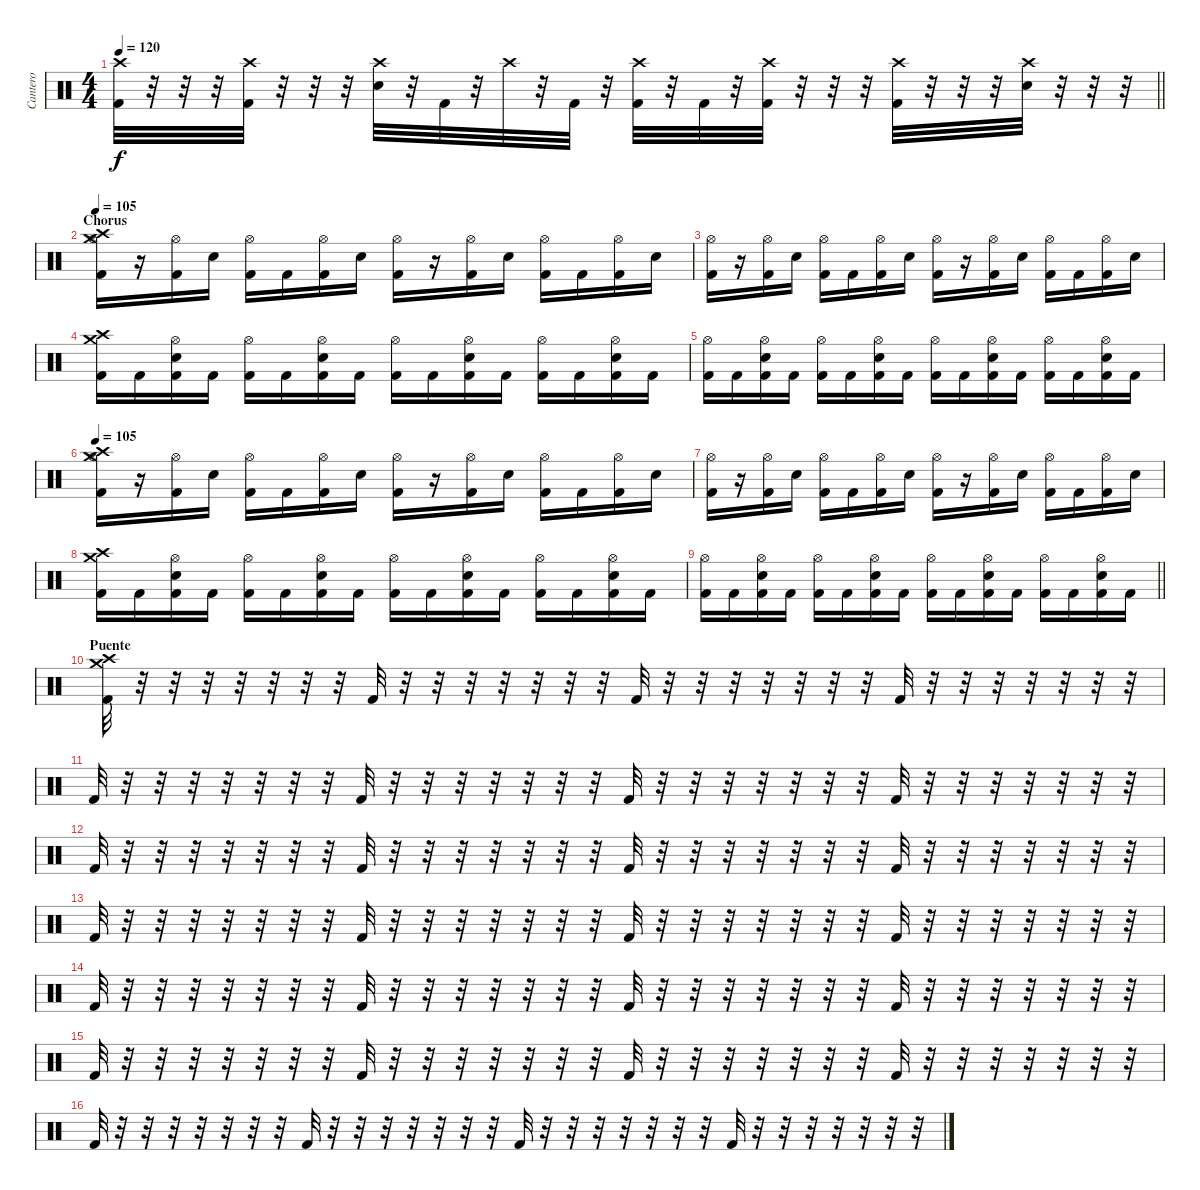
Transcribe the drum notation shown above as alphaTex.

\track ("Cantero" "Cantero") {instrument percussion}
\staff {score}
\articulation defaults
\ts (4 4)
\tempo 120
\clef neutral
\barLineRight lightlight
\ks c
("Crash high (hit)" "Kick (hit) 2").32{dy f} r.32 r.32 r.32 ("Crash high (hit)" "Kick (hit) 2").32 r.32 r.32 r.32 ("Crash high (hit)" "Electric Snare (hit)").32 r.32 "Kick (hit) 2".32 r.32 "Crash high (hit)".32 r.32 "Kick (hit) 2".32 r.32 ("Crash high (hit)" "Kick (hit) 2").32 r.32 "Kick (hit) 2".32 r.32 ("Crash high (hit)" "Kick (hit) 2").32 r.32 r.32 r.32 ("Crash high (hit)" "Kick (hit) 2").32 r.32 r.32 r.32 ("Crash high (hit)" "Electric Snare (hit)").32 r.32 r.32 r.32 |
\section ("" "Chorus")
\tempo 100
\tempo 105
("Hi-Hat (open)" "Kick (hit) 2" "Crash high (hit)" "Crash medium (hit)").16 r.16 ("Kick (hit) 2" "Hi-Hat (open)").16 "Electric Snare (hit)".16 ("Hi-Hat (open)" "Kick (hit) 2").16 "Kick (hit) 2".16 ("Hi-Hat (open)" "Kick (hit) 2").16 "Electric Snare (hit)".16 ("Hi-Hat (open)" "Kick (hit) 2").16 r.16 ("Kick (hit) 2" "Hi-Hat (open)").16 "Electric Snare (hit)".16 ("Hi-Hat (open)" "Kick (hit) 2").16 "Kick (hit) 2".16 ("Hi-Hat (open)" "Kick (hit) 2").16 "Electric Snare (hit)".16 |
("Hi-Hat (open)" "Kick (hit) 2").16 r.16 ("Kick (hit) 2" "Hi-Hat (open)").16 "Electric Snare (hit)".16 ("Hi-Hat (open)" "Kick (hit) 2").16 "Kick (hit) 2".16 ("Hi-Hat (open)" "Kick (hit) 2").16 "Electric Snare (hit)".16 ("Hi-Hat (open)" "Kick (hit) 2").16 r.16 ("Kick (hit) 2" "Hi-Hat (open)").16 "Electric Snare (hit)".16 ("Hi-Hat (open)" "Kick (hit) 2").16 "Kick (hit) 2".16 ("Hi-Hat (open)" "Kick (hit) 2").16 "Electric Snare (hit)".16 |
("Kick (hit) 2" "Crash medium (hit)" "Crash high (hit)").16 "Kick (hit) 2".16 ("Electric Snare (hit)" "Kick (hit) 2" "Hi-Hat (open)").16 "Kick (hit) 2".16 ("Kick (hit) 2" "Hi-Hat (open)").16 "Kick (hit) 2".16 ("Electric Snare (hit)" "Kick (hit) 2" "Hi-Hat (open)").16 "Kick (hit) 2".16 ("Kick (hit) 2" "Hi-Hat (open)").16 "Kick (hit) 2".16 ("Electric Snare (hit)" "Kick (hit) 2" "Hi-Hat (open)").16 "Kick (hit) 2".16 ("Kick (hit) 2" "Hi-Hat (open)").16 "Kick (hit) 2".16 ("Electric Snare (hit)" "Kick (hit) 2" "Hi-Hat (open)").16 "Kick (hit) 2".16 |
("Kick (hit) 2" "Hi-Hat (open)").16 "Kick (hit) 2".16 ("Electric Snare (hit)" "Kick (hit) 2" "Hi-Hat (open)").16 "Kick (hit) 2".16 ("Kick (hit) 2" "Hi-Hat (open)").16 "Kick (hit) 2".16 ("Electric Snare (hit)" "Kick (hit) 2" "Hi-Hat (open)").16 "Kick (hit) 2".16 ("Kick (hit) 2" "Hi-Hat (open)").16 "Kick (hit) 2".16 ("Electric Snare (hit)" "Kick (hit) 2" "Hi-Hat (open)").16 "Kick (hit) 2".16 ("Kick (hit) 2" "Hi-Hat (open)").16 "Kick (hit) 2".16 ("Electric Snare (hit)" "Kick (hit) 2" "Hi-Hat (open)").16 "Kick (hit) 2".16 |
\tempo 105
("Hi-Hat (open)" "Kick (hit) 2" "Crash high (hit)" "Crash medium (hit)").16 r.16 ("Kick (hit) 2" "Hi-Hat (open)").16 "Electric Snare (hit)".16 ("Hi-Hat (open)" "Kick (hit) 2").16 "Kick (hit) 2".16 ("Hi-Hat (open)" "Kick (hit) 2").16 "Electric Snare (hit)".16 ("Hi-Hat (open)" "Kick (hit) 2").16 r.16 ("Kick (hit) 2" "Hi-Hat (open)").16 "Electric Snare (hit)".16 ("Hi-Hat (open)" "Kick (hit) 2").16 "Kick (hit) 2".16 ("Hi-Hat (open)" "Kick (hit) 2").16 "Electric Snare (hit)".16 |
("Hi-Hat (open)" "Kick (hit) 2").16 r.16 ("Kick (hit) 2" "Hi-Hat (open)").16 "Electric Snare (hit)".16 ("Hi-Hat (open)" "Kick (hit) 2").16 "Kick (hit) 2".16 ("Hi-Hat (open)" "Kick (hit) 2").16 "Electric Snare (hit)".16 ("Hi-Hat (open)" "Kick (hit) 2").16 r.16 ("Kick (hit) 2" "Hi-Hat (open)").16 "Electric Snare (hit)".16 ("Hi-Hat (open)" "Kick (hit) 2").16 "Kick (hit) 2".16 ("Hi-Hat (open)" "Kick (hit) 2").16 "Electric Snare (hit)".16 |
("Kick (hit) 2" "Crash medium (hit)" "Crash high (hit)").16 "Kick (hit) 2".16 ("Electric Snare (hit)" "Kick (hit) 2" "Hi-Hat (open)").16 "Kick (hit) 2".16 ("Kick (hit) 2" "Hi-Hat (open)").16 "Kick (hit) 2".16 ("Electric Snare (hit)" "Kick (hit) 2" "Hi-Hat (open)").16 "Kick (hit) 2".16 ("Kick (hit) 2" "Hi-Hat (open)").16 "Kick (hit) 2".16 ("Electric Snare (hit)" "Kick (hit) 2" "Hi-Hat (open)").16 "Kick (hit) 2".16 ("Kick (hit) 2" "Hi-Hat (open)").16 "Kick (hit) 2".16 ("Electric Snare (hit)" "Kick (hit) 2" "Hi-Hat (open)").16 "Kick (hit) 2".16 |
\barLineRight lightlight
("Kick (hit) 2" "Hi-Hat (open)").16 "Kick (hit) 2".16 ("Electric Snare (hit)" "Kick (hit) 2" "Hi-Hat (open)").16 "Kick (hit) 2".16 ("Kick (hit) 2" "Hi-Hat (open)").16 "Kick (hit) 2".16 ("Electric Snare (hit)" "Kick (hit) 2" "Hi-Hat (open)").16 "Kick (hit) 2".16 ("Kick (hit) 2" "Hi-Hat (open)").16 "Kick (hit) 2".16 ("Electric Snare (hit)" "Kick (hit) 2" "Hi-Hat (open)").16 "Kick (hit) 2".16 ("Kick (hit) 2" "Hi-Hat (open)").16 "Kick (hit) 2".16 ("Electric Snare (hit)" "Kick (hit) 2" "Hi-Hat (open)").16 "Kick (hit) 2".16 |
\section ("" "Puente")
("Kick (hit) 2" "Crash high (hit)" "Crash medium (hit)").32 r.32 r.32 r.32 r.32 r.32 r.32 r.32 "Kick (hit) 2".32 r.32 r.32 r.32 r.32 r.32 r.32 r.32 "Kick (hit) 2".32 r.32 r.32 r.32 r.32 r.32 r.32 r.32 "Kick (hit) 2".32 r.32 r.32 r.32 r.32 r.32 r.32 r.32 |
"Kick (hit) 2".32 r.32 r.32 r.32 r.32 r.32 r.32 r.32 "Kick (hit) 2".32 r.32 r.32 r.32 r.32 r.32 r.32 r.32 "Kick (hit) 2".32 r.32 r.32 r.32 r.32 r.32 r.32 r.32 "Kick (hit) 2".32 r.32 r.32 r.32 r.32 r.32 r.32 r.32 |
"Kick (hit) 2".32 r.32 r.32 r.32 r.32 r.32 r.32 r.32 "Kick (hit) 2".32 r.32 r.32 r.32 r.32 r.32 r.32 r.32 "Kick (hit) 2".32 r.32 r.32 r.32 r.32 r.32 r.32 r.32 "Kick (hit) 2".32 r.32 r.32 r.32 r.32 r.32 r.32 r.32 |
"Kick (hit) 2".32 r.32 r.32 r.32 r.32 r.32 r.32 r.32 "Kick (hit) 2".32 r.32 r.32 r.32 r.32 r.32 r.32 r.32 "Kick (hit) 2".32 r.32 r.32 r.32 r.32 r.32 r.32 r.32 "Kick (hit) 2".32 r.32 r.32 r.32 r.32 r.32 r.32 r.32 |
"Kick (hit) 2".32 r.32 r.32 r.32 r.32 r.32 r.32 r.32 "Kick (hit) 2".32 r.32 r.32 r.32 r.32 r.32 r.32 r.32 "Kick (hit) 2".32 r.32 r.32 r.32 r.32 r.32 r.32 r.32 "Kick (hit) 2".32 r.32 r.32 r.32 r.32 r.32 r.32 r.32 |
"Kick (hit) 2".32 r.32 r.32 r.32 r.32 r.32 r.32 r.32 "Kick (hit) 2".32 r.32 r.32 r.32 r.32 r.32 r.32 r.32 "Kick (hit) 2".32 r.32 r.32 r.32 r.32 r.32 r.32 r.32 "Kick (hit) 2".32 r.32 r.32 r.32 r.32 r.32 r.32 r.32 |
"Kick (hit) 2".32 r.32 r.32 r.32 r.32 r.32 r.32 r.32 "Kick (hit) 2".32 r.32 r.32 r.32 r.32 r.32 r.32 r.32 "Kick (hit) 2".32 r.32 r.32 r.32 r.32 r.32 r.32 r.32 "Kick (hit) 2".32 r.32 r.32 r.32 r.32 r.32 r.32 r.32
